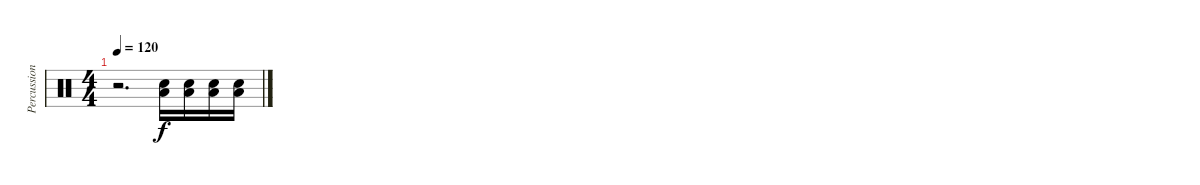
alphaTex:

\track ("Percussions" "Percussion") {instrument percussion}
\staff {score}
\articulation defaults
\ts (4 4)
\tempo 120
\clef neutral
\ks c
r.2{d dy f} ("Electric Snare (hit)" "Low Floor Tom (hit)").16 ("Electric Snare (hit)" "Low Floor Tom (hit)").16 ("Electric Snare (hit)" "Low Floor Tom (hit)").16 ("Electric Snare (hit)" "Low Floor Tom (hit)").16
